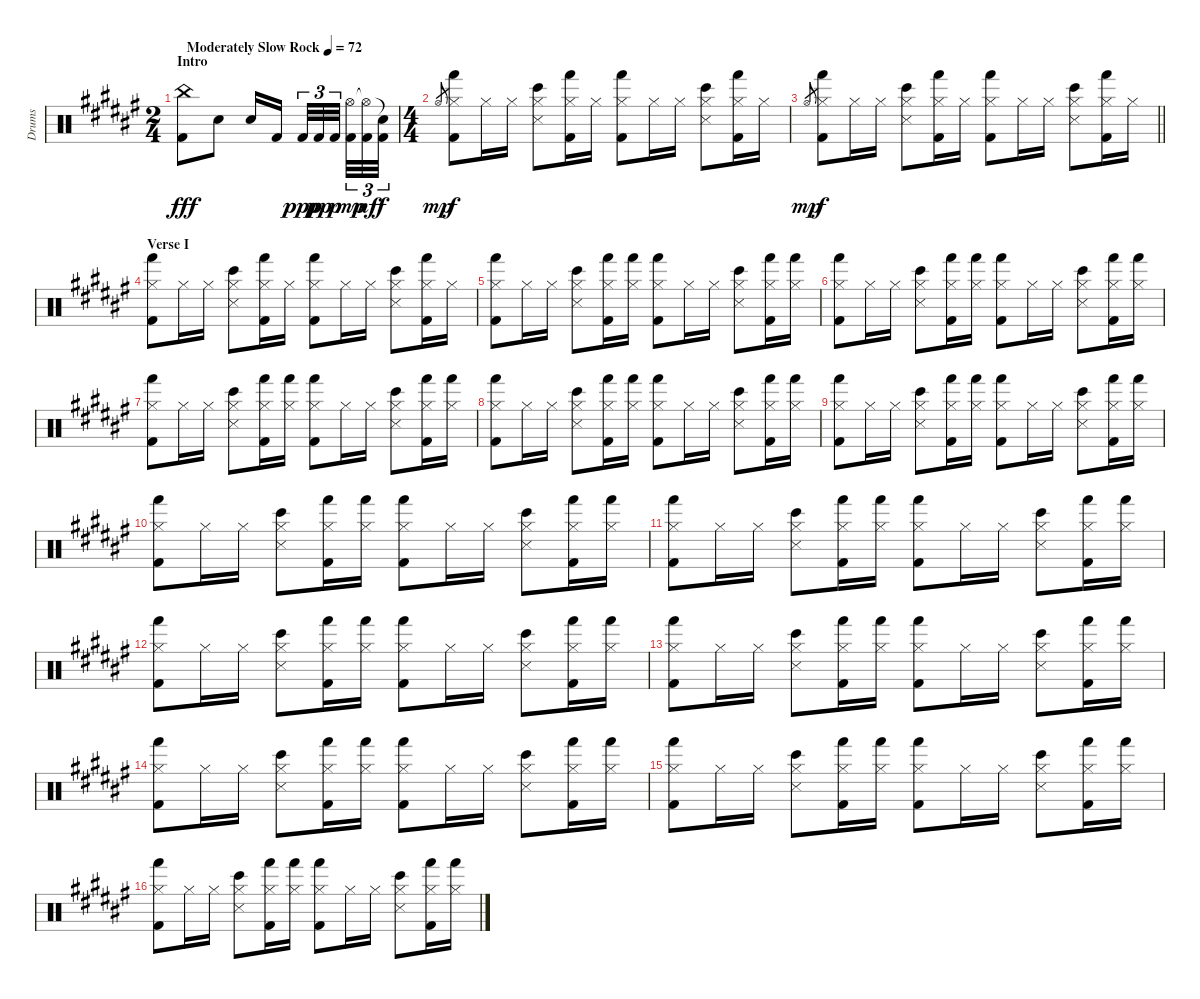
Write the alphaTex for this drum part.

\track ("Drums" "Drums") {instrument percussion}
\staff {score}
\articulation defaults
\ts (2 4)
\section ("" "Intro")
\tempo (72 "Moderately Slow Rock")
\clef neutral
\ks f#
("China (hit)" "Kick (hit) 2").8{dy fff} "Snare (hit) 2".8 "Snare (hit) 2".16 "Kick (hit) 2".16{beam splitsecondary} "Kick (hit) 2".32{tu (3 2) dy ppp} "Kick (hit) 2".32{tu (3 2) dy pp} "Kick (hit) 2".32{tu (3 2) dy p beam splitsecondary} ("Hi-Hat (open)" "Kick (hit) 2").32{tu (3 2) dy mp} ("Hi-Hat (open)"{t} "Kick (hit) 2").32{tu (3 2) dy mf} ("Snare (hit)"{t} "Kick (hit) 2").32{tu (3 2) dy f} |
\ts (4 4)
"Hi-Hat (open)".8{gr dy mp} ("Hi-Hat (closed)" "Hand (hit)" "Kick (hit) 2").8{dy f} "Hi-Hat (closed)".16 "Hi-Hat (closed)".16 ("Hi-Hat (closed)" "Bongo High (hit)" "Snare (side stick) 3").8 ("Hi-Hat (closed)" "Hand (hit)" "Kick (hit) 2").16 "Hi-Hat (closed)".16 ("Hi-Hat (closed)" "Hand (hit)" "Kick (hit) 2").8 "Hi-Hat (closed)".16 "Hi-Hat (closed)".16 ("Hi-Hat (closed)" "Bongo High (hit)" "Snare (side stick) 3").8 ("Hi-Hat (closed)" "Hand (hit)" "Kick (hit) 2").16 "Hi-Hat (closed)".16 |
\barLineRight lightlight "Hi-Hat (open)".8{gr dy mp}
("Hi-Hat (closed)" "Hand (hit)" "Kick (hit) 2").8{dy f} "Hi-Hat (closed)".16 "Hi-Hat (closed)".16 ("Hi-Hat (closed)" "Bongo High (hit)" "Snare (side stick) 3").8 ("Hi-Hat (closed)" "Hand (hit)" "Kick (hit) 2").16 "Hi-Hat (closed)".16 ("Hi-Hat (closed)" "Hand (hit)" "Kick (hit) 2").8 "Hi-Hat (closed)".16 "Hi-Hat (closed)".16 ("Hi-Hat (closed)" "Bongo High (hit)" "Snare (side stick) 3").8 ("Hi-Hat (closed)" "Hand (hit)" "Kick (hit) 2").16 "Hi-Hat (closed)".16 |
\section ("" "Verse I")
("Hi-Hat (closed)" "Hand (hit)" "Kick (hit) 2").8 "Hi-Hat (closed)".16 "Hi-Hat (closed)".16 ("Hi-Hat (closed)" "Bongo High (hit)" "Snare (side stick) 3").8 ("Hi-Hat (closed)" "Hand (hit)" "Kick (hit) 2").16 "Hi-Hat (closed)".16 ("Hi-Hat (closed)" "Hand (hit)" "Kick (hit) 2").8 "Hi-Hat (closed)".16 "Hi-Hat (closed)".16 ("Hi-Hat (closed)" "Bongo High (hit)" "Snare (side stick) 3").8 ("Hi-Hat (closed)" "Hand (hit)" "Kick (hit) 2").16 "Hi-Hat (closed)".16 |
("Hi-Hat (closed)" "Hand (hit)" "Kick (hit) 2").8 "Hi-Hat (closed)".16 "Hi-Hat (closed)".16 ("Hi-Hat (closed)" "Bongo High (hit)" "Snare (side stick) 3").8 ("Hi-Hat (closed)" "Hand (hit)" "Kick (hit) 2").16 ("Hi-Hat (closed)" "Hand (hit)").16 ("Hi-Hat (closed)" "Hand (hit)" "Kick (hit) 2").8 "Hi-Hat (closed)".16 "Hi-Hat (closed)".16 ("Hi-Hat (closed)" "Bongo High (hit)" "Snare (side stick) 3").8 ("Hi-Hat (closed)" "Hand (hit)" "Kick (hit) 2").16 ("Hi-Hat (closed)" "Hand (hit)").16 |
("Hi-Hat (closed)" "Hand (hit)" "Kick (hit) 2").8 "Hi-Hat (closed)".16 "Hi-Hat (closed)".16 ("Hi-Hat (closed)" "Bongo High (hit)" "Snare (side stick) 3").8 ("Hi-Hat (closed)" "Hand (hit)" "Kick (hit) 2").16 ("Hi-Hat (closed)" "Hand (hit)").16 ("Hi-Hat (closed)" "Hand (hit)" "Kick (hit) 2").8 "Hi-Hat (closed)".16 "Hi-Hat (closed)".16 ("Hi-Hat (closed)" "Bongo High (hit)" "Snare (side stick) 3").8 ("Hi-Hat (closed)" "Hand (hit)" "Kick (hit) 2").16 ("Hi-Hat (closed)" "Hand (hit)").16 |
("Hi-Hat (closed)" "Hand (hit)" "Kick (hit) 2").8 "Hi-Hat (closed)".16 "Hi-Hat (closed)".16 ("Hi-Hat (closed)" "Bongo High (hit)" "Snare (side stick) 3").8 ("Hi-Hat (closed)" "Hand (hit)" "Kick (hit) 2").16 ("Hi-Hat (closed)" "Hand (hit)").16 ("Hi-Hat (closed)" "Hand (hit)" "Kick (hit) 2").8 "Hi-Hat (closed)".16 "Hi-Hat (closed)".16 ("Hi-Hat (closed)" "Bongo High (hit)" "Snare (side stick) 3").8 ("Hi-Hat (closed)" "Hand (hit)" "Kick (hit) 2").16 ("Hi-Hat (closed)" "Hand (hit)").16 |
("Hi-Hat (closed)" "Hand (hit)" "Kick (hit) 2").8 "Hi-Hat (closed)".16 "Hi-Hat (closed)".16 ("Hi-Hat (closed)" "Bongo High (hit)" "Snare (side stick) 3").8 ("Hi-Hat (closed)" "Hand (hit)" "Kick (hit) 2").16 ("Hi-Hat (closed)" "Hand (hit)").16 ("Hi-Hat (closed)" "Hand (hit)" "Kick (hit) 2").8 "Hi-Hat (closed)".16 "Hi-Hat (closed)".16 ("Hi-Hat (closed)" "Bongo High (hit)" "Snare (side stick) 3").8 ("Hi-Hat (closed)" "Hand (hit)" "Kick (hit) 2").16 ("Hi-Hat (closed)" "Hand (hit)").16 |
("Hi-Hat (closed)" "Hand (hit)" "Kick (hit) 2").8 "Hi-Hat (closed)".16 "Hi-Hat (closed)".16 ("Hi-Hat (closed)" "Bongo High (hit)" "Snare (side stick) 3").8 ("Hi-Hat (closed)" "Hand (hit)" "Kick (hit) 2").16 ("Hi-Hat (closed)" "Hand (hit)").16 ("Hi-Hat (closed)" "Hand (hit)" "Kick (hit) 2").8 "Hi-Hat (closed)".16 "Hi-Hat (closed)".16 ("Hi-Hat (closed)" "Bongo High (hit)" "Snare (side stick) 3").8 ("Hi-Hat (closed)" "Hand (hit)" "Kick (hit) 2").16 ("Hi-Hat (closed)" "Hand (hit)").16 |
("Hi-Hat (closed)" "Hand (hit)" "Kick (hit) 2").8 "Hi-Hat (closed)".16 "Hi-Hat (closed)".16 ("Hi-Hat (closed)" "Bongo High (hit)" "Snare (side stick) 3").8 ("Hi-Hat (closed)" "Hand (hit)" "Kick (hit) 2").16 ("Hi-Hat (closed)" "Hand (hit)").16 ("Hi-Hat (closed)" "Hand (hit)" "Kick (hit) 2").8 "Hi-Hat (closed)".16 "Hi-Hat (closed)".16 ("Hi-Hat (closed)" "Bongo High (hit)" "Snare (side stick) 3").8 ("Hi-Hat (closed)" "Hand (hit)" "Kick (hit) 2").16 ("Hi-Hat (closed)" "Hand (hit)").16 |
("Hi-Hat (closed)" "Hand (hit)" "Kick (hit) 2").8 "Hi-Hat (closed)".16 "Hi-Hat (closed)".16 ("Hi-Hat (closed)" "Bongo High (hit)" "Snare (side stick) 3").8 ("Hi-Hat (closed)" "Hand (hit)" "Kick (hit) 2").16 ("Hi-Hat (closed)" "Hand (hit)").16 ("Hi-Hat (closed)" "Hand (hit)" "Kick (hit) 2").8 "Hi-Hat (closed)".16 "Hi-Hat (closed)".16 ("Hi-Hat (closed)" "Bongo High (hit)" "Snare (side stick) 3").8 ("Hi-Hat (closed)" "Hand (hit)" "Kick (hit) 2").16 ("Hi-Hat (closed)" "Hand (hit)").16 |
("Hi-Hat (closed)" "Hand (hit)" "Kick (hit) 2").8 "Hi-Hat (closed)".16 "Hi-Hat (closed)".16 ("Hi-Hat (closed)" "Bongo High (hit)" "Snare (side stick) 3").8 ("Hi-Hat (closed)" "Hand (hit)" "Kick (hit) 2").16 ("Hi-Hat (closed)" "Hand (hit)").16 ("Hi-Hat (closed)" "Hand (hit)" "Kick (hit) 2").8 "Hi-Hat (closed)".16 "Hi-Hat (closed)".16 ("Hi-Hat (closed)" "Bongo High (hit)" "Snare (side stick) 3").8 ("Hi-Hat (closed)" "Hand (hit)" "Kick (hit) 2").16 ("Hi-Hat (closed)" "Hand (hit)").16 |
("Hi-Hat (closed)" "Hand (hit)" "Kick (hit) 2").8 "Hi-Hat (closed)".16 "Hi-Hat (closed)".16 ("Hi-Hat (closed)" "Bongo High (hit)" "Snare (side stick) 3").8 ("Hi-Hat (closed)" "Hand (hit)" "Kick (hit) 2").16 ("Hi-Hat (closed)" "Hand (hit)").16 ("Hi-Hat (closed)" "Hand (hit)" "Kick (hit) 2").8 "Hi-Hat (closed)".16 "Hi-Hat (closed)".16 ("Hi-Hat (closed)" "Bongo High (hit)" "Snare (side stick) 3").8 ("Hi-Hat (closed)" "Hand (hit)" "Kick (hit) 2").16 ("Hi-Hat (closed)" "Hand (hit)").16 |
("Hi-Hat (closed)" "Hand (hit)" "Kick (hit) 2").8 "Hi-Hat (closed)".16 "Hi-Hat (closed)".16 ("Hi-Hat (closed)" "Bongo High (hit)" "Snare (side stick) 3").8 ("Hi-Hat (closed)" "Hand (hit)" "Kick (hit) 2").16 ("Hi-Hat (closed)" "Hand (hit)").16 ("Hi-Hat (closed)" "Hand (hit)" "Kick (hit) 2").8 "Hi-Hat (closed)".16 "Hi-Hat (closed)".16 ("Hi-Hat (closed)" "Bongo High (hit)" "Snare (side stick) 3").8 ("Hi-Hat (closed)" "Hand (hit)" "Kick (hit) 2").16 ("Hi-Hat (closed)" "Hand (hit)").16 |
("Hi-Hat (closed)" "Hand (hit)" "Kick (hit) 2").8 "Hi-Hat (closed)".16 "Hi-Hat (closed)".16 ("Hi-Hat (closed)" "Bongo High (hit)" "Snare (side stick) 3").8 ("Hi-Hat (closed)" "Hand (hit)" "Kick (hit) 2").16 ("Hi-Hat (closed)" "Hand (hit)").16 ("Hi-Hat (closed)" "Hand (hit)" "Kick (hit) 2").8 "Hi-Hat (closed)".16 "Hi-Hat (closed)".16 ("Hi-Hat (closed)" "Bongo High (hit)" "Snare (side stick) 3").8 ("Hi-Hat (closed)" "Hand (hit)" "Kick (hit) 2").16 ("Hi-Hat (closed)" "Hand (hit)").16 |
("Hi-Hat (closed)" "Hand (hit)" "Kick (hit) 2").8 "Hi-Hat (closed)".16 "Hi-Hat (closed)".16 ("Hi-Hat (closed)" "Bongo High (hit)" "Snare (side stick) 3").8 ("Hi-Hat (closed)" "Hand (hit)" "Kick (hit) 2").16 ("Hi-Hat (closed)" "Hand (hit)").16 ("Hi-Hat (closed)" "Hand (hit)" "Kick (hit) 2").8 "Hi-Hat (closed)".16 "Hi-Hat (closed)".16 ("Hi-Hat (closed)" "Bongo High (hit)" "Snare (side stick) 3").8 ("Hi-Hat (closed)" "Hand (hit)" "Kick (hit) 2").16 ("Hi-Hat (closed)" "Hand (hit)").16
